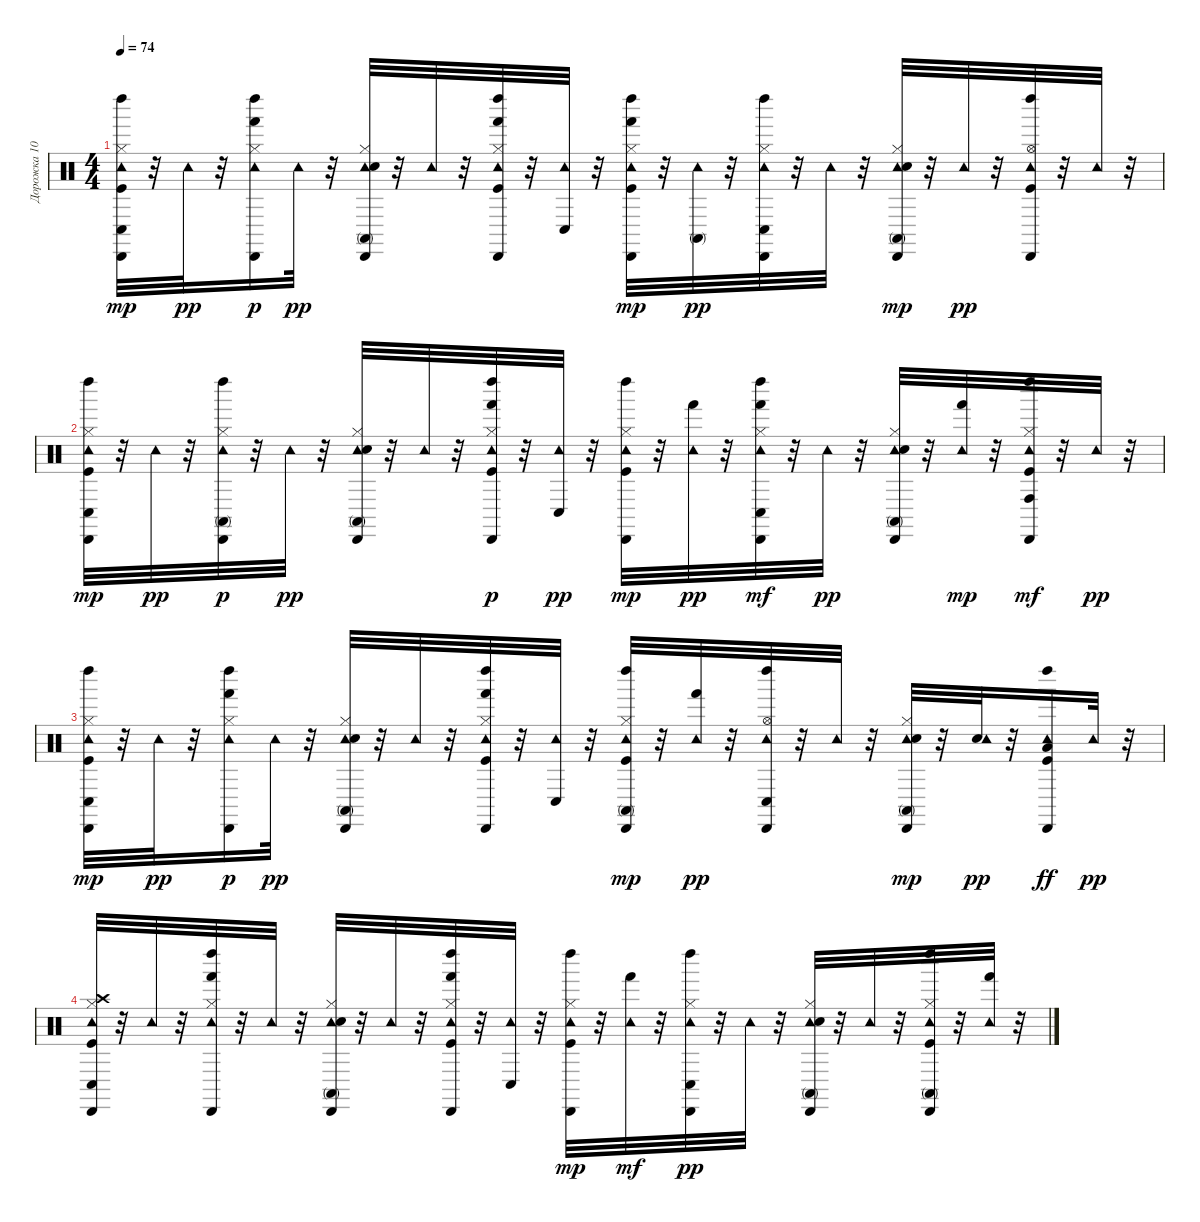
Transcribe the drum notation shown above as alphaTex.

\track ("Дорожка 10" "Дорожка 10") {instrument percussion}
\staff {score}
\articulation defaults
\ts (4 4)
\tempo 74
\clef neutral
\ks c
("Conga low (hit)" "Tambourine (hit)" "Kick (hit)" "Hi-Hat (closed)" "Cabasa (hit)" "Left Maraca (hit)").32{dy mp} r.32 "Tambourine (hit)".32{dy pp} r.32 ("Hi-Hat (closed)" "Tambourine (hit)" "Cabasa (hit)" "Left Maraca (hit)" "Hand (hit)").16{dy p} "Tambourine (hit)".32{dy pp} r.32 ("Tambourine (hit)" "Electric Snare (hit)" "Hi-Hat (closed)" "Conga high (mute)" "Cabasa (hit)").32 r.32 "Tambourine (hit)".32 r.32 ("Kick (hit)" "Hi-Hat (closed)" "Tambourine (hit)" "Cabasa (hit)" "Left Maraca (hit)" "Hand (hit)").32 r.32 ("Conga low (hit)" "Tambourine (hit)").32 r.32 ("Hand (hit)" "Kick (hit)" "Hi-Hat (closed)" "Tambourine (hit)" "Cabasa (hit)" "Left Maraca (hit)").32{dy mp} r.32 ("Tambourine (hit)" "Conga high (mute)").32{dy pp} r.32 ("Conga low (hit)" "Hi-Hat (closed)" "Tambourine (hit)" "Cabasa (hit)" "Left Maraca (hit)").32 r.32 "Tambourine (hit)".32 r.32 ("Tambourine (hit)" "Electric Snare (hit)" "Hi-Hat (closed)" "Cabasa (hit)" "Conga high (mute)").32{dy mp} r.32 "Tambourine (hit)".32{dy pp} r.32 ("Kick (hit)" "Hi-Hat (open)" "Tambourine (hit)" "Cabasa (hit)" "Left Maraca (hit)").32 r.32 "Tambourine (hit)".32 r.32 |
("Conga low (hit)" "Tambourine (hit)" "Kick (hit)" "Hi-Hat (closed)" "Cabasa (hit)" "Left Maraca (hit)").32{dy mp} r.32 "Tambourine (hit)".32{dy pp} r.32 ("Hi-Hat (closed)" "Tambourine (hit)" "Cabasa (hit)" "Left Maraca (hit)" "Conga high (mute)").32{dy p} r.32 "Tambourine (hit)".32{dy pp} r.32 ("Tambourine (hit)" "Electric Snare (hit)" "Hi-Hat (closed)" "Conga high (mute)" "Cabasa (hit)").32 r.32 "Tambourine (hit)".32 r.32 ("Kick (hit)" "Hi-Hat (closed)" "Tambourine (hit)" "Cabasa (hit)" "Left Maraca (hit)" "Hand (hit)").32{dy p} r.32 ("Conga low (hit)" "Tambourine (hit)").32{dy pp} r.32 ("Kick (hit)" "Hi-Hat (closed)" "Tambourine (hit)" "Cabasa (hit)" "Left Maraca (hit)").32{dy mp} r.32 ("Tambourine (hit)" "Hand (hit)").32{dy pp} r.32 ("Conga low (hit)" "Hi-Hat (closed)" "Tambourine (hit)" "Cabasa (hit)" "Left Maraca (hit)" "Hand (hit)").32{dy mf} r.32 "Tambourine (hit)".32{dy pp} r.32 ("Conga high (mute)" "Tambourine (hit)" "Electric Snare (hit)" "Hi-Hat (closed)" "Cabasa (hit)").32 r.32 ("Tambourine (hit)" "Hand (hit)").32{dy mp} r.32 ("Kick (hit)" "Hi-Hat (closed)" "Tambourine (hit)" "Cabasa (hit)" "Left Maraca (hit)" "Conga high (hit)").32{dy mf} r.32 "Tambourine (hit)".32{dy pp} r.32 |
("Conga low (hit)" "Tambourine (hit)" "Kick (hit)" "Hi-Hat (closed)" "Cabasa (hit)" "Left Maraca (hit)").32{dy mp} r.32 "Tambourine (hit)".32{dy pp} r.32 ("Hi-Hat (closed)" "Tambourine (hit)" "Cabasa (hit)" "Left Maraca (hit)" "Hand (hit)").16{dy p} "Tambourine (hit)".32{dy pp} r.32 ("Tambourine (hit)" "Electric Snare (hit)" "Hi-Hat (closed)" "Conga high (mute)" "Cabasa (hit)").32 r.32 "Tambourine (hit)".32 r.32 ("Kick (hit)" "Hi-Hat (closed)" "Tambourine (hit)" "Cabasa (hit)" "Left Maraca (hit)" "Hand (hit)").32 r.32 ("Conga low (hit)" "Tambourine (hit)").32 r.32 ("Kick (hit)" "Hi-Hat (closed)" "Tambourine (hit)" "Conga high (mute)" "Cabasa (hit)" "Left Maraca (hit)").32{dy mp} r.32 ("Tambourine (hit)" "Hand (hit)").32{dy pp} r.32 ("Conga low (hit)" "Hi-Hat (open)" "Tambourine (hit)" "Cabasa (hit)" "Left Maraca (hit)").32 r.32 "Tambourine (hit)".32 r.32 ("Tambourine (hit)" "Electric Snare (hit)" "Hi-Hat (closed)" "Cabasa (hit)" "Conga high (mute)").32{dy mp} r.32 ("Electric Snare (hit)" "Tambourine (hit)").32{dy pp} r.32 ("Kick (hit)" "Tambourine (hit)" "Cabasa (hit)" "Left Maraca (hit)" "Low Tom (hit)").16{dy ff} "Tambourine (hit)".32{dy pp} r.32 |
("Crash high (hit)" "Conga low (hit)" "Tambourine (hit)" "Kick (hit)" "Hi-Hat (closed)" "Cabasa (hit)").32 r.32 "Tambourine (hit)".32 r.32 ("Hand (hit)" "Hi-Hat (closed)" "Tambourine (hit)" "Cabasa (hit)" "Left Maraca (hit)").32 r.32 "Tambourine (hit)".32 r.32 ("Conga high (mute)" "Tambourine (hit)" "Electric Snare (hit)" "Hi-Hat (closed)" "Cabasa (hit)").32 r.32 "Tambourine (hit)".32 r.32 ("Hand (hit)" "Kick (hit)" "Hi-Hat (closed)" "Tambourine (hit)" "Cabasa (hit)" "Left Maraca (hit)").32 r.32 ("Conga low (hit)" "Tambourine (hit)").32 r.32 ("Kick (hit)" "Hi-Hat (closed)" "Tambourine (hit)" "Cabasa (hit)" "Left Maraca (hit)").32{dy mp} r.32 ("Tambourine (hit)" "Hand (hit)").32{dy mf} r.32 ("Conga low (hit)" "Hi-Hat (closed)" "Tambourine (hit)" "Cabasa (hit)" "Left Maraca (hit)").32{dy pp} r.32 "Tambourine (hit)".32 r.32 ("Conga high (mute)" "Tambourine (hit)" "Electric Snare (hit)" "Hi-Hat (closed)" "Cabasa (hit)").32 r.32 "Tambourine (hit)".32 r.32 ("Conga high (mute)" "Kick (hit)" "Hi-Hat (closed)" "Tambourine (hit)" "Cabasa (hit)" "Left Maraca (hit)").32 r.32 ("Hand (hit)" "Tambourine (hit)").32 r.32
